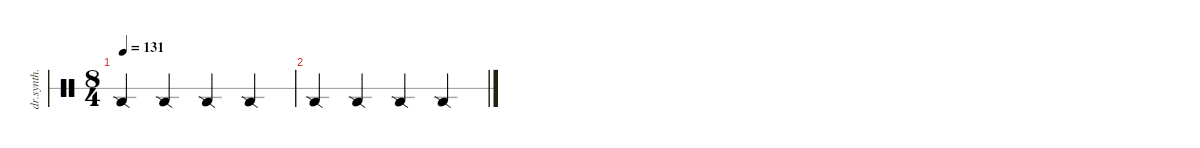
\defaultSystemsLayout 4
\hideDynamics
\bracketExtendMode nobrackets
\otherSystemsTrackNameOrientation horizontal
\track ("Synth Drum" "dr.synth.") {instrument percussion}
\staff {score 1}
\articulation defaults
\ts (8 4)
\tempo 131
\clef neutral
\ks c "Snare (side stick) 2".2{dy mf beam Up} "Snare (side stick) 2".2{beam Up} "Snare (side stick) 2".2{beam Up} "Snare (side stick) 2".2{beam Up}
|
"Snare (side stick) 2".2{beam Up} "Snare (side stick) 2".2{beam Up} "Snare (side stick) 2".2{beam Up} "Snare (side stick) 2".2{beam Up}
